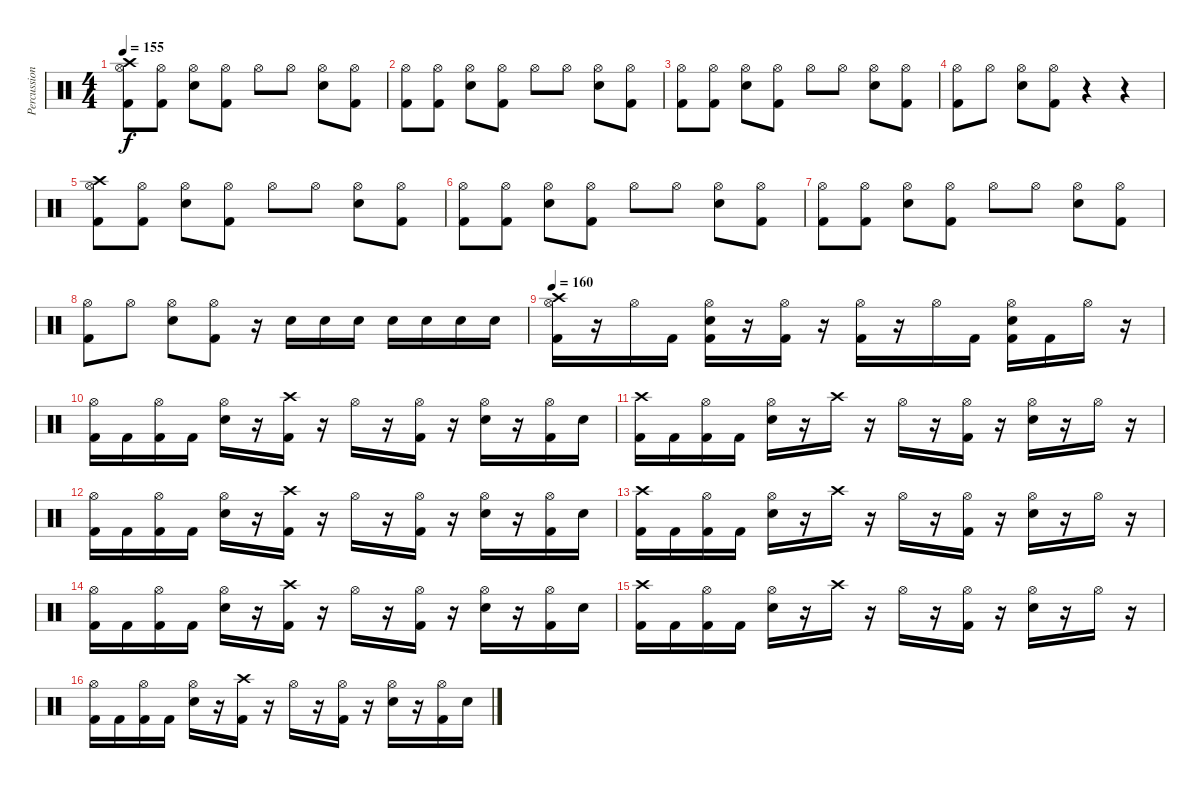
\track ("Percussion" "Percussion") {instrument percussion}
\staff {score}
\articulation defaults
\ts (4 4)
\tempo 155
\clef neutral
\ks c
("Crash high (hit)" "Hi-Hat (open)" "Kick (hit) 2").8{dy f} ("Hi-Hat (open)" "Kick (hit) 2").8 ("Hi-Hat (open)" "Electric Snare (hit)").8 ("Hi-Hat (open)" "Kick (hit) 2").8 "Hi-Hat (open)".8 "Hi-Hat (open)".8 ("Hi-Hat (open)" "Electric Snare (hit)").8 ("Hi-Hat (open)" "Kick (hit) 2").8 |
("Hi-Hat (open)" "Kick (hit) 2").8 ("Hi-Hat (open)" "Kick (hit) 2").8 ("Hi-Hat (open)" "Electric Snare (hit)").8 ("Hi-Hat (open)" "Kick (hit) 2").8 "Hi-Hat (open)".8 "Hi-Hat (open)".8 ("Hi-Hat (open)" "Electric Snare (hit)").8 ("Hi-Hat (open)" "Kick (hit) 2").8 |
("Hi-Hat (open)" "Kick (hit) 2").8 ("Hi-Hat (open)" "Kick (hit) 2").8 ("Hi-Hat (open)" "Electric Snare (hit)").8 ("Hi-Hat (open)" "Kick (hit) 2").8 "Hi-Hat (open)".8 "Hi-Hat (open)".8 ("Hi-Hat (open)" "Electric Snare (hit)").8 ("Hi-Hat (open)" "Kick (hit) 2").8 |
("Hi-Hat (open)" "Kick (hit) 2").8 "Hi-Hat (open)".8 ("Hi-Hat (open)" "Electric Snare (hit)").8 ("Hi-Hat (open)" "Kick (hit) 2").8 r.4 r.4 |
("Crash high (hit)" "Hi-Hat (open)" "Kick (hit) 2").8 ("Hi-Hat (open)" "Kick (hit) 2").8 ("Hi-Hat (open)" "Electric Snare (hit)").8 ("Hi-Hat (open)" "Kick (hit) 2").8 "Hi-Hat (open)".8 "Hi-Hat (open)".8 ("Hi-Hat (open)" "Electric Snare (hit)").8 ("Hi-Hat (open)" "Kick (hit) 2").8 |
("Hi-Hat (open)" "Kick (hit) 2").8 ("Hi-Hat (open)" "Kick (hit) 2").8 ("Hi-Hat (open)" "Electric Snare (hit)").8 ("Hi-Hat (open)" "Kick (hit) 2").8 "Hi-Hat (open)".8 "Hi-Hat (open)".8 ("Hi-Hat (open)" "Electric Snare (hit)").8 ("Hi-Hat (open)" "Kick (hit) 2").8 |
("Hi-Hat (open)" "Kick (hit) 2").8 ("Hi-Hat (open)" "Kick (hit) 2").8 ("Hi-Hat (open)" "Electric Snare (hit)").8 ("Hi-Hat (open)" "Kick (hit) 2").8 "Hi-Hat (open)".8 "Hi-Hat (open)".8 ("Hi-Hat (open)" "Electric Snare (hit)").8 ("Hi-Hat (open)" "Kick (hit) 2").8 |
("Hi-Hat (open)" "Kick (hit) 2").8 "Hi-Hat (open)".8 ("Hi-Hat (open)" "Electric Snare (hit)").8 ("Hi-Hat (open)" "Kick (hit) 2").8 r.16 "Electric Snare (hit)".16 "Electric Snare (hit)".16 "Electric Snare (hit)".16 "Electric Snare (hit)".16 "Electric Snare (hit)".16 "Electric Snare (hit)".16 "Electric Snare (hit)".16 |
\tempo 160
("Crash high (hit)" "Hi-Hat (open)" "Kick (hit) 2").16 r.16 "Hi-Hat (open)".16 "Kick (hit) 2".16 ("Hi-Hat (open)" "Electric Snare (hit)" "Kick (hit) 2").16 r.16 ("Hi-Hat (open)" "Kick (hit) 2").16 r.16 ("Hi-Hat (open)" "Kick (hit) 2").16 r.16 "Hi-Hat (open)".16 "Kick (hit) 2".16 ("Hi-Hat (open)" "Electric Snare (hit)" "Kick (hit) 2").16 "Kick (hit) 2".16 "Hi-Hat (open)".16 r.16 |
("Hi-Hat (open)" "Kick (hit) 2").16 "Kick (hit) 2".16 ("Hi-Hat (open)" "Kick (hit) 2").16 "Kick (hit) 2".16 ("Hi-Hat (open)" "Electric Snare (hit)").16 r.16 ("Crash high (hit)" "Kick (hit) 2").16 r.16 "Hi-Hat (open)".16 r.16 ("Hi-Hat (open)" "Kick (hit) 2").16 r.16 ("Hi-Hat (open)" "Electric Snare (hit)").16 r.16 ("Hi-Hat (open)" "Kick (hit) 2").16 "Electric Snare (hit)".16 |
("Crash high (hit)" "Kick (hit) 2").16 "Kick (hit) 2".16 ("Hi-Hat (open)" "Kick (hit) 2").16 "Kick (hit) 2".16 ("Hi-Hat (open)" "Electric Snare (hit)").16 r.16 "Crash high (hit)".16 r.16 "Hi-Hat (open)".16 r.16 ("Hi-Hat (open)" "Kick (hit) 2").16 r.16 ("Hi-Hat (open)" "Electric Snare (hit)").16 r.16 "Hi-Hat (open)".16 r.16 |
("Hi-Hat (open)" "Kick (hit) 2").16 "Kick (hit) 2".16 ("Hi-Hat (open)" "Kick (hit) 2").16 "Kick (hit) 2".16 ("Hi-Hat (open)" "Electric Snare (hit)").16 r.16 ("Crash high (hit)" "Kick (hit) 2").16 r.16 "Hi-Hat (open)".16 r.16 ("Hi-Hat (open)" "Kick (hit) 2").16 r.16 ("Hi-Hat (open)" "Electric Snare (hit)").16 r.16 ("Hi-Hat (open)" "Kick (hit) 2").16 "Electric Snare (hit)".16 |
("Crash high (hit)" "Kick (hit) 2").16 "Kick (hit) 2".16 ("Hi-Hat (open)" "Kick (hit) 2").16 "Kick (hit) 2".16 ("Hi-Hat (open)" "Electric Snare (hit)").16 r.16 "Crash high (hit)".16 r.16 "Hi-Hat (open)".16 r.16 ("Hi-Hat (open)" "Kick (hit) 2").16 r.16 ("Hi-Hat (open)" "Electric Snare (hit)").16 r.16 "Hi-Hat (open)".16 r.16 |
("Hi-Hat (open)" "Kick (hit) 2").16 "Kick (hit) 2".16 ("Hi-Hat (open)" "Kick (hit) 2").16 "Kick (hit) 2".16 ("Hi-Hat (open)" "Electric Snare (hit)").16 r.16 ("Crash high (hit)" "Kick (hit) 2").16 r.16 "Hi-Hat (open)".16 r.16 ("Hi-Hat (open)" "Kick (hit) 2").16 r.16 ("Hi-Hat (open)" "Electric Snare (hit)").16 r.16 ("Hi-Hat (open)" "Kick (hit) 2").16 "Electric Snare (hit)".16 |
("Crash high (hit)" "Kick (hit) 2").16 "Kick (hit) 2".16 ("Hi-Hat (open)" "Kick (hit) 2").16 "Kick (hit) 2".16 ("Hi-Hat (open)" "Electric Snare (hit)").16 r.16 "Crash high (hit)".16 r.16 "Hi-Hat (open)".16 r.16 ("Hi-Hat (open)" "Kick (hit) 2").16 r.16 ("Hi-Hat (open)" "Electric Snare (hit)").16 r.16 "Hi-Hat (open)".16 r.16 |
("Hi-Hat (open)" "Kick (hit) 2").16 "Kick (hit) 2".16 ("Hi-Hat (open)" "Kick (hit) 2").16 "Kick (hit) 2".16 ("Hi-Hat (open)" "Electric Snare (hit)").16 r.16 ("Crash high (hit)" "Kick (hit) 2").16 r.16 "Hi-Hat (open)".16 r.16 ("Hi-Hat (open)" "Kick (hit) 2").16 r.16 ("Hi-Hat (open)" "Electric Snare (hit)").16 r.16 ("Hi-Hat (open)" "Kick (hit) 2").16 "Electric Snare (hit)".16
